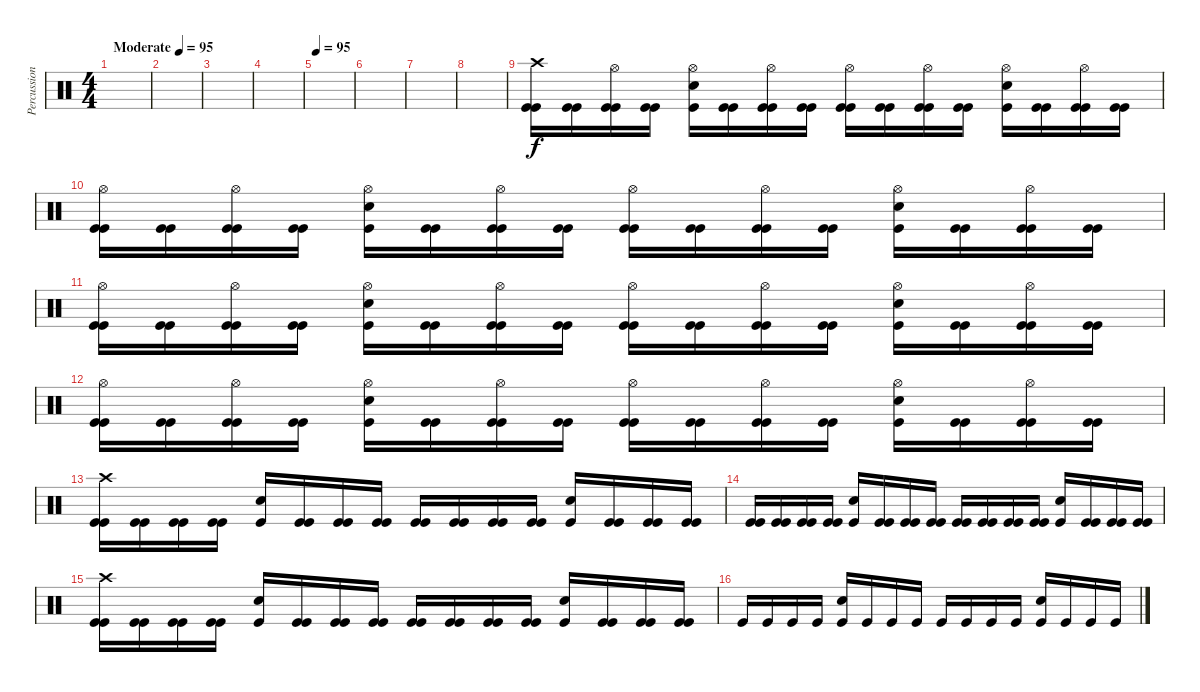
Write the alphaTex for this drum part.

\track ("Percussion" "Percussion") {instrument percussion}
\staff {score}
\articulation defaults
\ts (4 4)
\tempo (95 "Moderate")
\clef neutral
\ks c
|
|
|
|
\tempo 95
|
|
|
|
("Crash high (hit)" "Kick (hit)" "Kick (hit)").16 ("Kick (hit)" "Kick (hit)").16 ("Hi-Hat (open)" "Kick (hit)" "Kick (hit)").16 ("Kick (hit)" "Kick (hit)").16 ("Hi-Hat (open)" "Electric Snare (hit)" "Kick (hit)").16 ("Kick (hit)" "Kick (hit)").16 ("Hi-Hat (open)" "Kick (hit)" "Kick (hit)").16 ("Kick (hit)" "Kick (hit)").16 ("Hi-Hat (open)" "Kick (hit)" "Kick (hit)").16 ("Kick (hit)" "Kick (hit)").16 ("Hi-Hat (open)" "Kick (hit)" "Kick (hit)").16 ("Kick (hit)" "Kick (hit)").16 ("Hi-Hat (open)" "Electric Snare (hit)" "Kick (hit)").16 ("Kick (hit)" "Kick (hit)").16 ("Hi-Hat (open)" "Kick (hit)" "Kick (hit)").16 ("Kick (hit)" "Kick (hit)").16 |
("Hi-Hat (open)" "Kick (hit)" "Kick (hit)").16 ("Kick (hit)" "Kick (hit)").16 ("Hi-Hat (open)" "Kick (hit)" "Kick (hit)").16 ("Kick (hit)" "Kick (hit)").16 ("Hi-Hat (open)" "Electric Snare (hit)" "Kick (hit)").16 ("Kick (hit)" "Kick (hit)").16 ("Hi-Hat (open)" "Kick (hit)" "Kick (hit)").16 ("Kick (hit)" "Kick (hit)").16 ("Hi-Hat (open)" "Kick (hit)" "Kick (hit)").16 ("Kick (hit)" "Kick (hit)").16 ("Hi-Hat (open)" "Kick (hit)" "Kick (hit)").16 ("Kick (hit)" "Kick (hit)").16 ("Hi-Hat (open)" "Electric Snare (hit)" "Kick (hit)").16 ("Kick (hit)" "Kick (hit)").16 ("Hi-Hat (open)" "Kick (hit)" "Kick (hit)").16 ("Kick (hit)" "Kick (hit)").16 |
("Hi-Hat (open)" "Kick (hit)" "Kick (hit)").16 ("Kick (hit)" "Kick (hit)").16 ("Hi-Hat (open)" "Kick (hit)" "Kick (hit)").16 ("Kick (hit)" "Kick (hit)").16 ("Hi-Hat (open)" "Electric Snare (hit)" "Kick (hit)").16 ("Kick (hit)" "Kick (hit)").16 ("Hi-Hat (open)" "Kick (hit)" "Kick (hit)").16 ("Kick (hit)" "Kick (hit)").16 ("Hi-Hat (open)" "Kick (hit)" "Kick (hit)").16 ("Kick (hit)" "Kick (hit)").16 ("Hi-Hat (open)" "Kick (hit)" "Kick (hit)").16 ("Kick (hit)" "Kick (hit)").16 ("Hi-Hat (open)" "Electric Snare (hit)" "Kick (hit)").16 ("Kick (hit)" "Kick (hit)").16 ("Hi-Hat (open)" "Kick (hit)" "Kick (hit)").16 ("Kick (hit)" "Kick (hit)").16 |
("Hi-Hat (open)" "Kick (hit)" "Kick (hit)").16 ("Kick (hit)" "Kick (hit)").16 ("Hi-Hat (open)" "Kick (hit)" "Kick (hit)").16 ("Kick (hit)" "Kick (hit)").16 ("Hi-Hat (open)" "Electric Snare (hit)" "Kick (hit)").16 ("Kick (hit)" "Kick (hit)").16 ("Hi-Hat (open)" "Kick (hit)" "Kick (hit)").16 ("Kick (hit)" "Kick (hit)").16 ("Hi-Hat (open)" "Kick (hit)" "Kick (hit)").16 ("Kick (hit)" "Kick (hit)").16 ("Hi-Hat (open)" "Kick (hit)" "Kick (hit)").16 ("Kick (hit)" "Kick (hit)").16 ("Hi-Hat (open)" "Electric Snare (hit)" "Kick (hit)").16 ("Kick (hit)" "Kick (hit)").16 ("Hi-Hat (open)" "Kick (hit)" "Kick (hit)").16 ("Kick (hit)" "Kick (hit)").16 |
("Crash high (hit)" "Kick (hit)" "Kick (hit)").16 ("Kick (hit)" "Kick (hit)").16 ("Kick (hit)" "Kick (hit)").16 ("Kick (hit)" "Kick (hit)").16 ("Electric Snare (hit)" "Kick (hit)").16 ("Kick (hit)" "Kick (hit)").16 ("Kick (hit)" "Kick (hit)").16 ("Kick (hit)" "Kick (hit)").16 ("Kick (hit)" "Kick (hit)").16 ("Kick (hit)" "Kick (hit)").16 ("Kick (hit)" "Kick (hit)").16 ("Kick (hit)" "Kick (hit)").16 ("Electric Snare (hit)" "Kick (hit)").16 ("Kick (hit)" "Kick (hit)").16 ("Kick (hit)" "Kick (hit)").16 ("Kick (hit)" "Kick (hit)").16 |
("Kick (hit)" "Kick (hit)").16 ("Kick (hit)" "Kick (hit)").16 ("Kick (hit)" "Kick (hit)").16 ("Kick (hit)" "Kick (hit)").16 ("Electric Snare (hit)" "Kick (hit)").16 ("Kick (hit)" "Kick (hit)").16 ("Kick (hit)" "Kick (hit)").16 ("Kick (hit)" "Kick (hit)").16 ("Kick (hit)" "Kick (hit)").16 ("Kick (hit)" "Kick (hit)").16 ("Kick (hit)" "Kick (hit)").16 ("Kick (hit)" "Kick (hit)").16 ("Electric Snare (hit)" "Kick (hit)").16 ("Kick (hit)" "Kick (hit)").16 ("Kick (hit)" "Kick (hit)").16 ("Kick (hit)" "Kick (hit)").16 |
("Crash high (hit)" "Kick (hit)" "Kick (hit)").16 ("Kick (hit)" "Kick (hit)").16 ("Kick (hit)" "Kick (hit)").16 ("Kick (hit)" "Kick (hit)").16 ("Electric Snare (hit)" "Kick (hit)").16 ("Kick (hit)" "Kick (hit)").16 ("Kick (hit)" "Kick (hit)").16 ("Kick (hit)" "Kick (hit)").16 ("Kick (hit)" "Kick (hit)").16 ("Kick (hit)" "Kick (hit)").16 ("Kick (hit)" "Kick (hit)").16 ("Kick (hit)" "Kick (hit)").16 ("Electric Snare (hit)" "Kick (hit)").16 ("Kick (hit)" "Kick (hit)").16 ("Kick (hit)" "Kick (hit)").16 ("Kick (hit)" "Kick (hit)").16 |
"Kick (hit)".16 "Kick (hit)".16 "Kick (hit)".16 "Kick (hit)".16 ("Electric Snare (hit)" "Kick (hit)").16 "Kick (hit)".16 "Kick (hit)".16 "Kick (hit)".16 "Kick (hit)".16 "Kick (hit)".16 "Kick (hit)".16 "Kick (hit)".16 ("Electric Snare (hit)" "Kick (hit)").16 "Kick (hit)".16 "Kick (hit)".16 "Kick (hit)".16
